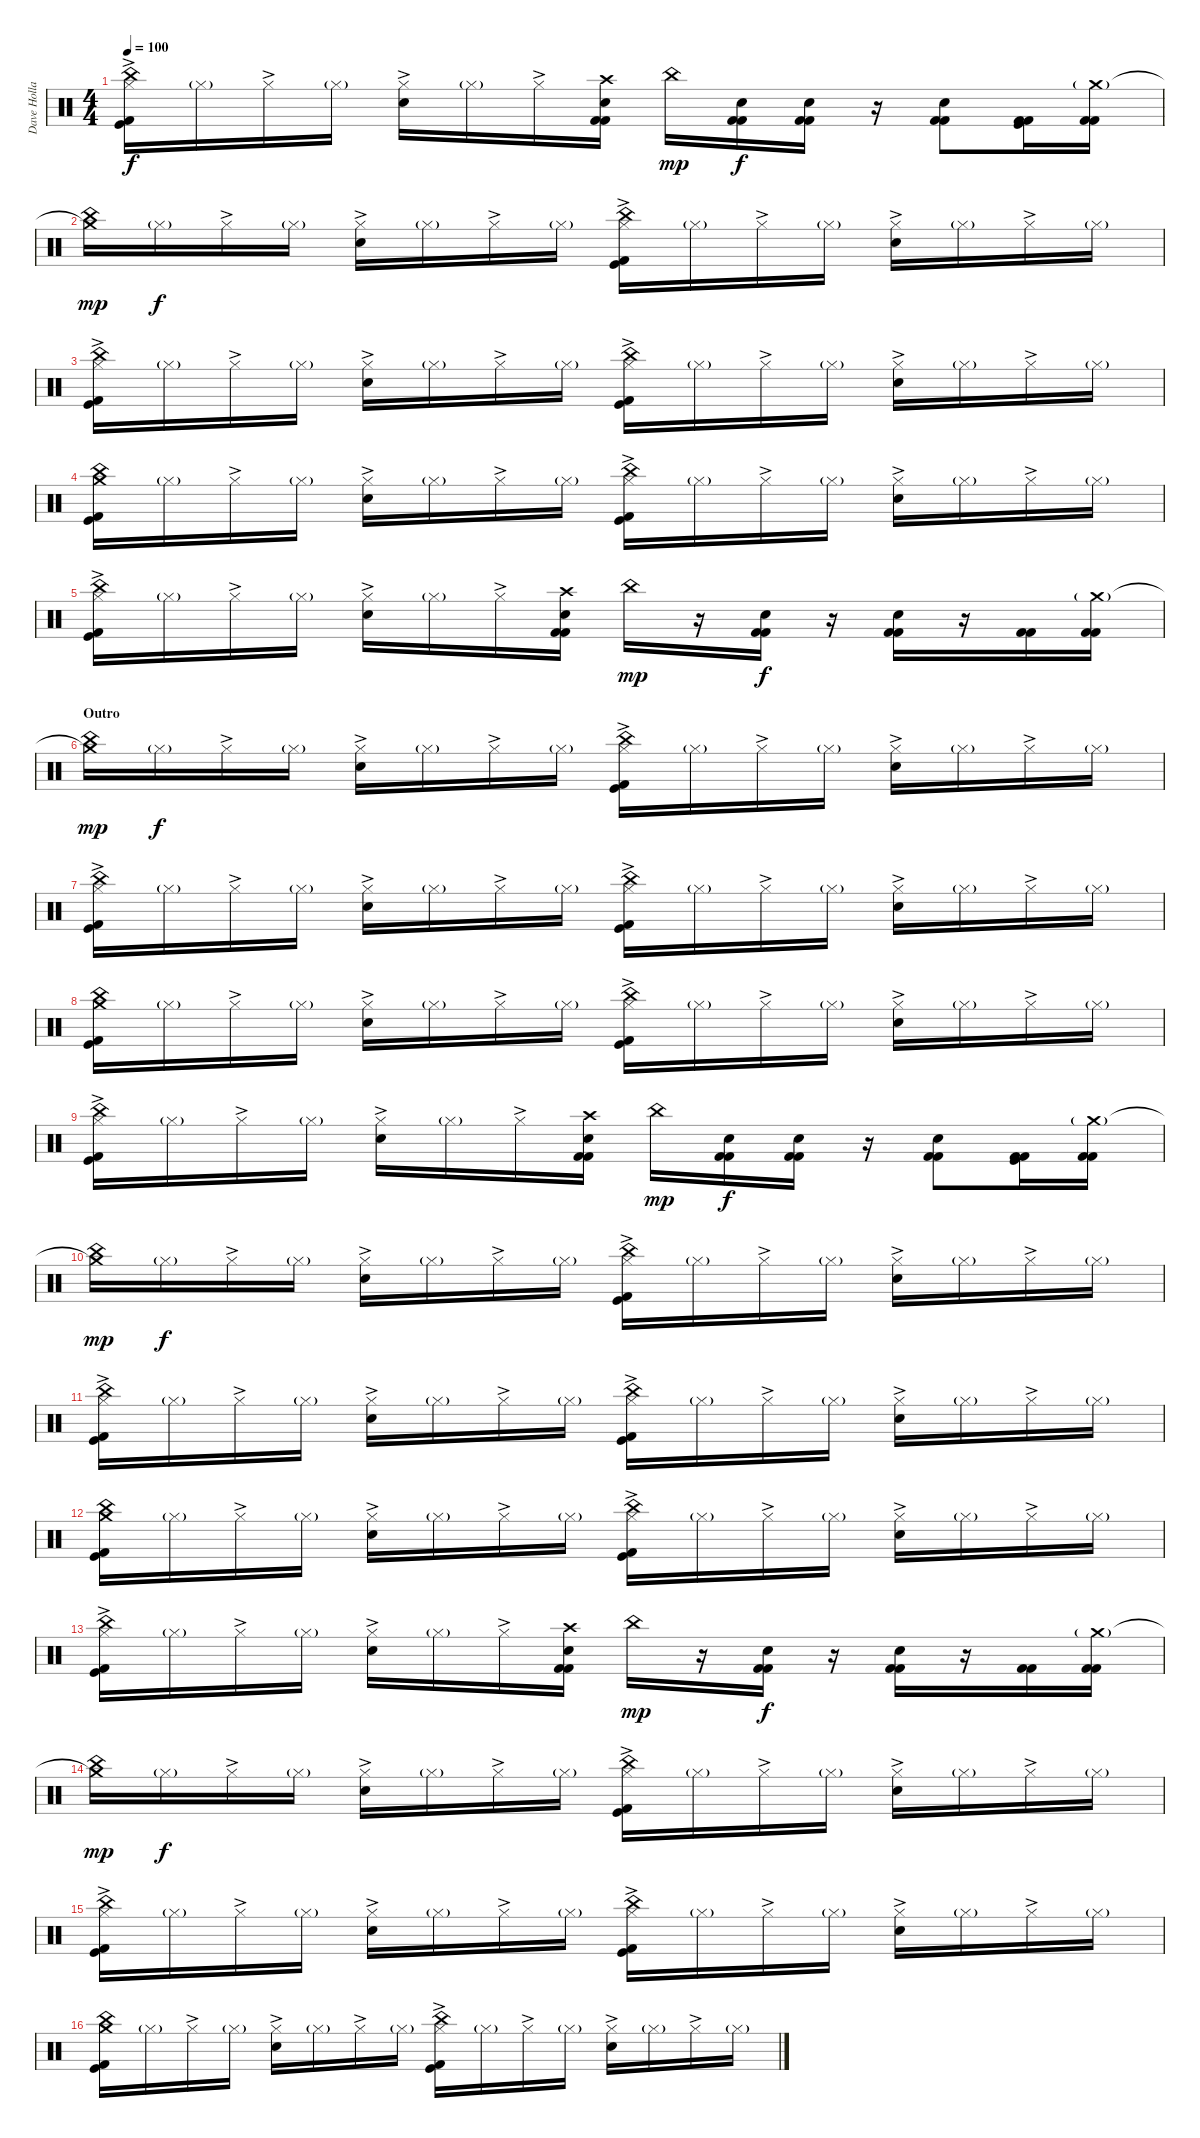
\track ("Dave Holland" "Dave Holla") {instrument percussion}
\staff {score}
\articulation defaults
\ts (4 4)
\tempo 100
\clef neutral
\ks c
("Hi-Hat (closed)"{ac} "China (hit)" "Kick (hit)" "Kick (hit) 2").16{dy f} "Hi-Hat (closed)"{g}.16 "Hi-Hat (closed)"{ac}.16 "Hi-Hat (closed)"{g}.16 ("Hi-Hat (closed)"{ac} "Electric Snare (hit)").16 "Hi-Hat (closed)"{g}.16 "Hi-Hat (closed)"{ac}.16 ("Crash high (hit)" "Electric Snare (hit)" "Kick (hit) 2" "Kick (hit) 2").16 "China (hit)".16{dy mp} ("Electric Snare (hit)" "Kick (hit) 2" "Kick (hit) 2").16{dy f} ("Electric Snare (hit)" "Kick (hit) 2" "Kick (hit) 2").16 r.16 ("Electric Snare (hit)" "Kick (hit) 2" "Kick (hit) 2").8 ("Kick (hit) 2" "Kick (hit)" "Kick (hit) 2").16 ("Crash medium (hit)"{g} "Kick (hit) 2" "Kick (hit) 2").16 |
("Crash medium (hit)"{t} "China (hit)").16{dy mp} "Hi-Hat (closed)"{g}.16{dy f} "Hi-Hat (closed)"{ac}.16 "Hi-Hat (closed)"{g}.16 ("Hi-Hat (closed)"{ac} "Electric Snare (hit)").16 "Hi-Hat (closed)"{g}.16 "Hi-Hat (closed)"{ac}.16 "Hi-Hat (closed)"{g}.16 ("Hi-Hat (closed)"{ac} "China (hit)" "Kick (hit)" "Kick (hit) 2").16 "Hi-Hat (closed)"{g}.16 "Hi-Hat (closed)"{ac}.16 "Hi-Hat (closed)"{g}.16 ("Hi-Hat (closed)"{ac} "Electric Snare (hit)").16 "Hi-Hat (closed)"{g}.16 "Hi-Hat (closed)"{ac}.16 "Hi-Hat (closed)"{g}.16 |
("Hi-Hat (closed)"{ac} "China (hit)" "Kick (hit)" "Kick (hit) 2").16 "Hi-Hat (closed)"{g}.16 "Hi-Hat (closed)"{ac}.16 "Hi-Hat (closed)"{g}.16 ("Hi-Hat (closed)"{ac} "Electric Snare (hit)").16 "Hi-Hat (closed)"{g}.16 "Hi-Hat (closed)"{ac}.16 "Hi-Hat (closed)"{g}.16 ("Hi-Hat (closed)"{ac} "China (hit)" "Kick (hit)" "Kick (hit) 2").16 "Hi-Hat (closed)"{g}.16 "Hi-Hat (closed)"{ac}.16 "Hi-Hat (closed)"{g}.16 ("Hi-Hat (closed)"{ac} "Electric Snare (hit)").16 "Hi-Hat (closed)"{g}.16 "Hi-Hat (closed)"{ac}.16 "Hi-Hat (closed)"{g}.16 |
("Crash medium (hit)" "China (hit)" "Kick (hit)" "Kick (hit) 2").16 "Hi-Hat (closed)"{g}.16 "Hi-Hat (closed)"{ac}.16 "Hi-Hat (closed)"{g}.16 ("Hi-Hat (closed)"{ac} "Electric Snare (hit)").16 "Hi-Hat (closed)"{g}.16 "Hi-Hat (closed)"{ac}.16 "Hi-Hat (closed)"{g}.16 ("Hi-Hat (closed)"{ac} "China (hit)" "Kick (hit)" "Kick (hit) 2").16 "Hi-Hat (closed)"{g}.16 "Hi-Hat (closed)"{ac}.16 "Hi-Hat (closed)"{g}.16 ("Hi-Hat (closed)"{ac} "Electric Snare (hit)").16 "Hi-Hat (closed)"{g}.16 "Hi-Hat (closed)"{ac}.16 "Hi-Hat (closed)"{g}.16 |
("Hi-Hat (closed)"{ac} "China (hit)" "Kick (hit)" "Kick (hit) 2").16 "Hi-Hat (closed)"{g}.16 "Hi-Hat (closed)"{ac}.16 "Hi-Hat (closed)"{g}.16 ("Hi-Hat (closed)"{ac} "Electric Snare (hit)").16 "Hi-Hat (closed)"{g}.16 "Hi-Hat (closed)"{ac}.16 ("Crash high (hit)" "Electric Snare (hit)" "Kick (hit) 2" "Kick (hit) 2").16 "China (hit)".16{dy mp} r.16 ("Electric Snare (hit)" "Kick (hit) 2" "Kick (hit) 2").16{dy f} r.16 ("Electric Snare (hit)" "Kick (hit) 2" "Kick (hit) 2").16 r.16 ("Kick (hit) 2" "Kick (hit) 2").16 ("Crash medium (hit)"{g} "Kick (hit) 2" "Kick (hit) 2").16 |
\section ("" "Outro")
("Crash medium (hit)"{t} "China (hit)").16{dy mp} "Hi-Hat (closed)"{g}.16{dy f} "Hi-Hat (closed)"{ac}.16 "Hi-Hat (closed)"{g}.16 ("Hi-Hat (closed)"{ac} "Electric Snare (hit)").16 "Hi-Hat (closed)"{g}.16 "Hi-Hat (closed)"{ac}.16 "Hi-Hat (closed)"{g}.16 ("Hi-Hat (closed)"{ac} "China (hit)" "Kick (hit)" "Kick (hit) 2").16 "Hi-Hat (closed)"{g}.16 "Hi-Hat (closed)"{ac}.16 "Hi-Hat (closed)"{g}.16 ("Hi-Hat (closed)"{ac} "Electric Snare (hit)").16 "Hi-Hat (closed)"{g}.16 "Hi-Hat (closed)"{ac}.16 "Hi-Hat (closed)"{g}.16 |
("Hi-Hat (closed)"{ac} "China (hit)" "Kick (hit)" "Kick (hit) 2").16 "Hi-Hat (closed)"{g}.16 "Hi-Hat (closed)"{ac}.16 "Hi-Hat (closed)"{g}.16 ("Hi-Hat (closed)"{ac} "Electric Snare (hit)").16 "Hi-Hat (closed)"{g}.16 "Hi-Hat (closed)"{ac}.16 "Hi-Hat (closed)"{g}.16 ("Hi-Hat (closed)"{ac} "China (hit)" "Kick (hit)" "Kick (hit) 2").16 "Hi-Hat (closed)"{g}.16 "Hi-Hat (closed)"{ac}.16 "Hi-Hat (closed)"{g}.16 ("Hi-Hat (closed)"{ac} "Electric Snare (hit)").16 "Hi-Hat (closed)"{g}.16 "Hi-Hat (closed)"{ac}.16 "Hi-Hat (closed)"{g}.16 |
("Crash medium (hit)" "China (hit)" "Kick (hit)" "Kick (hit) 2").16 "Hi-Hat (closed)"{g}.16 "Hi-Hat (closed)"{ac}.16 "Hi-Hat (closed)"{g}.16 ("Hi-Hat (closed)"{ac} "Electric Snare (hit)").16 "Hi-Hat (closed)"{g}.16 "Hi-Hat (closed)"{ac}.16 "Hi-Hat (closed)"{g}.16 ("Hi-Hat (closed)"{ac} "China (hit)" "Kick (hit)" "Kick (hit) 2").16 "Hi-Hat (closed)"{g}.16 "Hi-Hat (closed)"{ac}.16 "Hi-Hat (closed)"{g}.16 ("Hi-Hat (closed)"{ac} "Electric Snare (hit)").16 "Hi-Hat (closed)"{g}.16 "Hi-Hat (closed)"{ac}.16 "Hi-Hat (closed)"{g}.16 |
("Hi-Hat (closed)"{ac} "China (hit)" "Kick (hit)" "Kick (hit) 2").16 "Hi-Hat (closed)"{g}.16 "Hi-Hat (closed)"{ac}.16 "Hi-Hat (closed)"{g}.16 ("Hi-Hat (closed)"{ac} "Electric Snare (hit)").16 "Hi-Hat (closed)"{g}.16 "Hi-Hat (closed)"{ac}.16 ("Crash high (hit)" "Electric Snare (hit)" "Kick (hit) 2" "Kick (hit) 2").16 "China (hit)".16{dy mp} ("Electric Snare (hit)" "Kick (hit) 2" "Kick (hit) 2").16{dy f} ("Electric Snare (hit)" "Kick (hit) 2" "Kick (hit) 2").16 r.16 ("Electric Snare (hit)" "Kick (hit) 2" "Kick (hit) 2").8 ("Kick (hit) 2" "Kick (hit)" "Kick (hit) 2").16 ("Crash medium (hit)"{g} "Kick (hit) 2" "Kick (hit) 2").16 |
("Crash medium (hit)"{t} "China (hit)").16{dy mp} "Hi-Hat (closed)"{g}.16{dy f} "Hi-Hat (closed)"{ac}.16 "Hi-Hat (closed)"{g}.16 ("Hi-Hat (closed)"{ac} "Electric Snare (hit)").16 "Hi-Hat (closed)"{g}.16 "Hi-Hat (closed)"{ac}.16 "Hi-Hat (closed)"{g}.16 ("Hi-Hat (closed)"{ac} "China (hit)" "Kick (hit)" "Kick (hit) 2").16 "Hi-Hat (closed)"{g}.16 "Hi-Hat (closed)"{ac}.16 "Hi-Hat (closed)"{g}.16 ("Hi-Hat (closed)"{ac} "Electric Snare (hit)").16 "Hi-Hat (closed)"{g}.16 "Hi-Hat (closed)"{ac}.16 "Hi-Hat (closed)"{g}.16 |
("Hi-Hat (closed)"{ac} "China (hit)" "Kick (hit)" "Kick (hit) 2").16 "Hi-Hat (closed)"{g}.16 "Hi-Hat (closed)"{ac}.16 "Hi-Hat (closed)"{g}.16 ("Hi-Hat (closed)"{ac} "Electric Snare (hit)").16 "Hi-Hat (closed)"{g}.16 "Hi-Hat (closed)"{ac}.16 "Hi-Hat (closed)"{g}.16 ("Hi-Hat (closed)"{ac} "China (hit)" "Kick (hit)" "Kick (hit) 2").16 "Hi-Hat (closed)"{g}.16 "Hi-Hat (closed)"{ac}.16 "Hi-Hat (closed)"{g}.16 ("Hi-Hat (closed)"{ac} "Electric Snare (hit)").16 "Hi-Hat (closed)"{g}.16 "Hi-Hat (closed)"{ac}.16 "Hi-Hat (closed)"{g}.16 |
("Crash medium (hit)" "China (hit)" "Kick (hit)" "Kick (hit) 2").16 "Hi-Hat (closed)"{g}.16 "Hi-Hat (closed)"{ac}.16 "Hi-Hat (closed)"{g}.16 ("Hi-Hat (closed)"{ac} "Electric Snare (hit)").16 "Hi-Hat (closed)"{g}.16 "Hi-Hat (closed)"{ac}.16 "Hi-Hat (closed)"{g}.16 ("Hi-Hat (closed)"{ac} "China (hit)" "Kick (hit)" "Kick (hit) 2").16 "Hi-Hat (closed)"{g}.16 "Hi-Hat (closed)"{ac}.16 "Hi-Hat (closed)"{g}.16 ("Hi-Hat (closed)"{ac} "Electric Snare (hit)").16 "Hi-Hat (closed)"{g}.16 "Hi-Hat (closed)"{ac}.16 "Hi-Hat (closed)"{g}.16 |
("Hi-Hat (closed)"{ac} "China (hit)" "Kick (hit)" "Kick (hit) 2").16 "Hi-Hat (closed)"{g}.16 "Hi-Hat (closed)"{ac}.16 "Hi-Hat (closed)"{g}.16 ("Hi-Hat (closed)"{ac} "Electric Snare (hit)").16 "Hi-Hat (closed)"{g}.16 "Hi-Hat (closed)"{ac}.16 ("Crash high (hit)" "Electric Snare (hit)" "Kick (hit) 2" "Kick (hit) 2").16 "China (hit)".16{dy mp} r.16 ("Electric Snare (hit)" "Kick (hit) 2" "Kick (hit) 2").16{dy f} r.16 ("Electric Snare (hit)" "Kick (hit) 2" "Kick (hit) 2").16 r.16 ("Kick (hit) 2" "Kick (hit) 2").16 ("Crash medium (hit)"{g} "Kick (hit) 2" "Kick (hit) 2").16 |
("Crash medium (hit)"{t} "China (hit)").16{dy mp} "Hi-Hat (closed)"{g}.16{dy f} "Hi-Hat (closed)"{ac}.16 "Hi-Hat (closed)"{g}.16 ("Hi-Hat (closed)"{ac} "Electric Snare (hit)").16 "Hi-Hat (closed)"{g}.16 "Hi-Hat (closed)"{ac}.16 "Hi-Hat (closed)"{g}.16 ("Hi-Hat (closed)"{ac} "China (hit)" "Kick (hit)" "Kick (hit) 2").16 "Hi-Hat (closed)"{g}.16 "Hi-Hat (closed)"{ac}.16 "Hi-Hat (closed)"{g}.16 ("Hi-Hat (closed)"{ac} "Electric Snare (hit)").16 "Hi-Hat (closed)"{g}.16 "Hi-Hat (closed)"{ac}.16 "Hi-Hat (closed)"{g}.16 |
("Hi-Hat (closed)"{ac} "China (hit)" "Kick (hit)" "Kick (hit) 2").16 "Hi-Hat (closed)"{g}.16 "Hi-Hat (closed)"{ac}.16 "Hi-Hat (closed)"{g}.16 ("Hi-Hat (closed)"{ac} "Electric Snare (hit)").16 "Hi-Hat (closed)"{g}.16 "Hi-Hat (closed)"{ac}.16 "Hi-Hat (closed)"{g}.16 ("Hi-Hat (closed)"{ac} "China (hit)" "Kick (hit)" "Kick (hit) 2").16 "Hi-Hat (closed)"{g}.16 "Hi-Hat (closed)"{ac}.16 "Hi-Hat (closed)"{g}.16 ("Hi-Hat (closed)"{ac} "Electric Snare (hit)").16 "Hi-Hat (closed)"{g}.16 "Hi-Hat (closed)"{ac}.16 "Hi-Hat (closed)"{g}.16 |
("Crash medium (hit)" "China (hit)" "Kick (hit)" "Kick (hit) 2").16 "Hi-Hat (closed)"{g}.16 "Hi-Hat (closed)"{ac}.16 "Hi-Hat (closed)"{g}.16 ("Hi-Hat (closed)"{ac} "Electric Snare (hit)").16 "Hi-Hat (closed)"{g}.16 "Hi-Hat (closed)"{ac}.16 "Hi-Hat (closed)"{g}.16 ("Hi-Hat (closed)"{ac} "China (hit)" "Kick (hit)" "Kick (hit) 2").16 "Hi-Hat (closed)"{g}.16 "Hi-Hat (closed)"{ac}.16 "Hi-Hat (closed)"{g}.16 ("Hi-Hat (closed)"{ac} "Electric Snare (hit)").16 "Hi-Hat (closed)"{g}.16 "Hi-Hat (closed)"{ac}.16 "Hi-Hat (closed)"{g}.16
